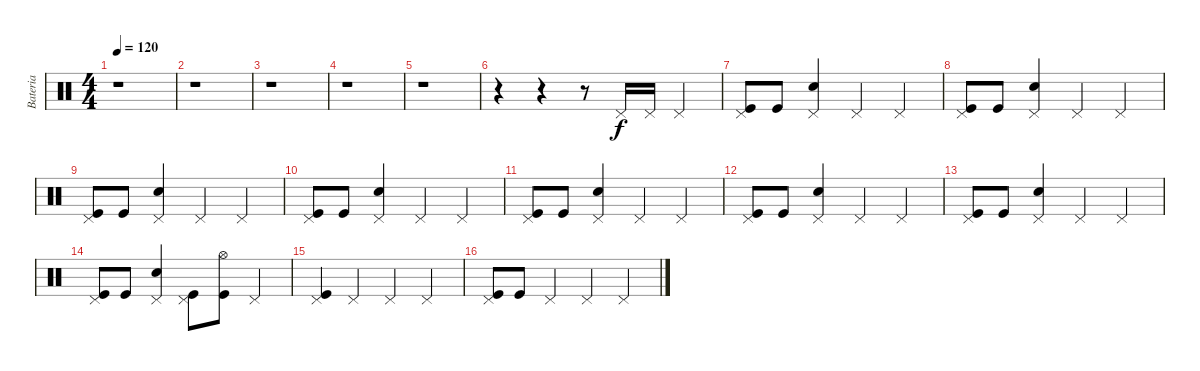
\track ("Bateria" "Bateria") {instrument percussion}
\staff {score}
\articulation defaults
\ts (4 4)
\tempo 120
\clef neutral
\ks c
r.1{dy f} |
r.1 |
r.1 |
r.1 |
r.1 |
r.4 r.4 r.8 "Pedal Hi-Hat (hit)".16 "Pedal Hi-Hat (hit)".16 "Pedal Hi-Hat (hit)".4 |
("Pedal Hi-Hat (hit)" "Kick (hit)").8 "Kick (hit)".8 ("Pedal Hi-Hat (hit)" "Snare (hit) 2").4 "Pedal Hi-Hat (hit)".4 "Pedal Hi-Hat (hit)".4 |
("Pedal Hi-Hat (hit)" "Kick (hit)").8 "Kick (hit)".8 ("Pedal Hi-Hat (hit)" "Snare (hit) 2").4 "Pedal Hi-Hat (hit)".4 "Pedal Hi-Hat (hit)".4 |
("Pedal Hi-Hat (hit)" "Kick (hit)").8 "Kick (hit)".8 ("Pedal Hi-Hat (hit)" "Snare (hit) 2").4 "Pedal Hi-Hat (hit)".4 "Pedal Hi-Hat (hit)".4 |
("Pedal Hi-Hat (hit)" "Kick (hit)").8 "Kick (hit)".8 ("Pedal Hi-Hat (hit)" "Snare (hit) 2").4 "Pedal Hi-Hat (hit)".4 "Pedal Hi-Hat (hit)".4 |
("Pedal Hi-Hat (hit)" "Kick (hit)").8 "Kick (hit)".8 ("Pedal Hi-Hat (hit)" "Snare (hit) 2").4 "Pedal Hi-Hat (hit)".4 "Pedal Hi-Hat (hit)".4 |
("Pedal Hi-Hat (hit)" "Kick (hit)").8 "Kick (hit)".8 ("Pedal Hi-Hat (hit)" "Snare (hit) 2").4 "Pedal Hi-Hat (hit)".4 "Pedal Hi-Hat (hit)".4 |
("Pedal Hi-Hat (hit)" "Kick (hit)").8 "Kick (hit)".8 ("Pedal Hi-Hat (hit)" "Snare (hit) 2").4 "Pedal Hi-Hat (hit)".4 "Pedal Hi-Hat (hit)".4 |
("Pedal Hi-Hat (hit)" "Kick (hit)").8 "Kick (hit)".8 ("Pedal Hi-Hat (hit)" "Snare (hit) 2").4 ("Pedal Hi-Hat (hit)" "Kick (hit)").8 ("Hi-Hat (open)" "Kick (hit)").8 "Pedal Hi-Hat (hit)".4 |
("Pedal Hi-Hat (hit)" "Kick (hit)").4 "Pedal Hi-Hat (hit)".4 "Pedal Hi-Hat (hit)".4 "Pedal Hi-Hat (hit)".4 |
("Pedal Hi-Hat (hit)" "Kick (hit)").8 "Kick (hit)".8 "Pedal Hi-Hat (hit)".4 "Pedal Hi-Hat (hit)".4 "Pedal Hi-Hat (hit)".4
